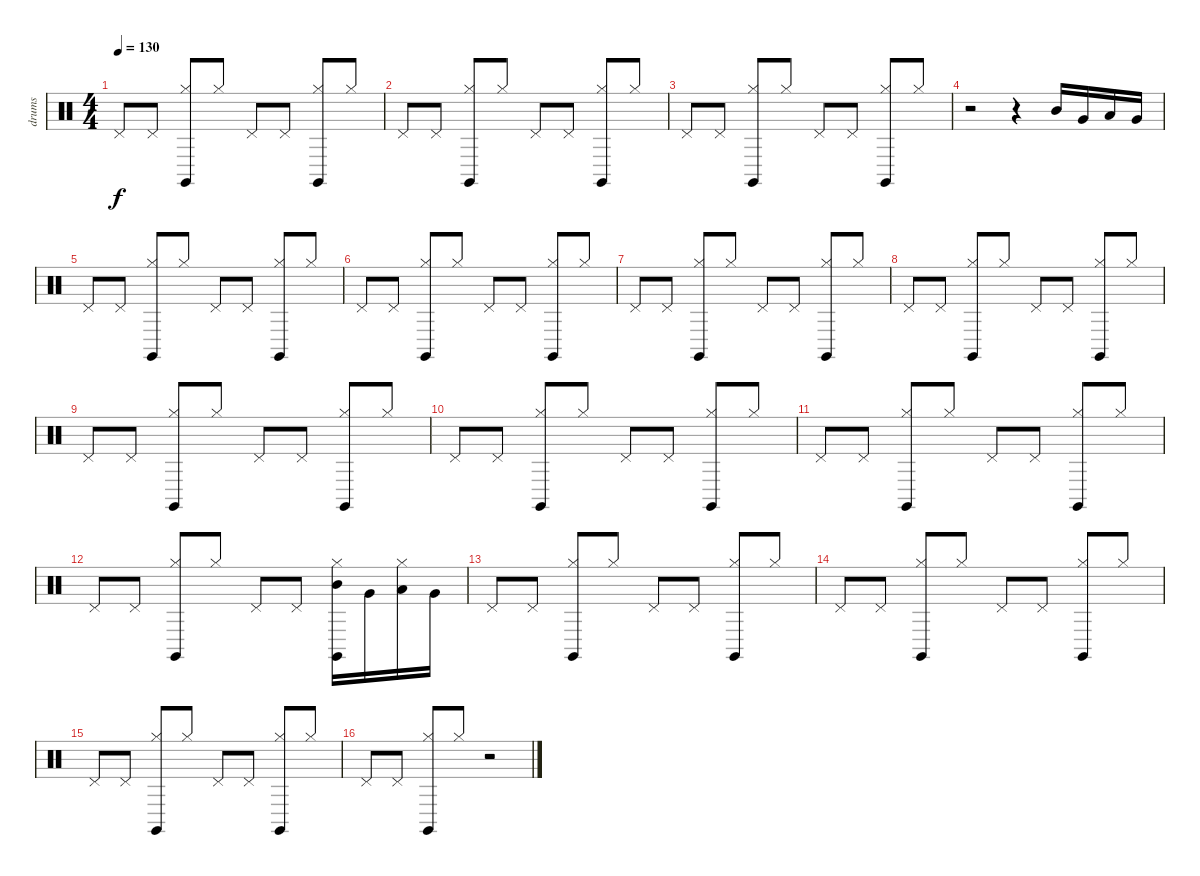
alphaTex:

\track ("drums" "drums") {instrument percussion}
\staff {score}
\articulation defaults
\ts (4 4)
\tempo 130
\clef neutral
\ks c "Pedal Hi-Hat (hit)".8{dy f} "Pedal Hi-Hat (hit)".8
("Hi-Hat (closed)" "Claves (hit)").8 "Hi-Hat (closed)".8 "Pedal Hi-Hat (hit)".8 "Pedal Hi-Hat (hit)".8 ("Hi-Hat (closed)" "Claves (hit)").8 "Hi-Hat (closed)".8 |
"Pedal Hi-Hat (hit)".8 "Pedal Hi-Hat (hit)".8 ("Hi-Hat (closed)" "Claves (hit)").8 "Hi-Hat (closed)".8 "Pedal Hi-Hat (hit)".8 "Pedal Hi-Hat (hit)".8 ("Hi-Hat (closed)" "Claves (hit)").8 "Hi-Hat (closed)".8 |
"Pedal Hi-Hat (hit)".8 "Pedal Hi-Hat (hit)".8 ("Hi-Hat (closed)" "Claves (hit)").8 "Hi-Hat (closed)".8 "Pedal Hi-Hat (hit)".8 "Pedal Hi-Hat (hit)".8 ("Hi-Hat (closed)" "Claves (hit)").8 "Hi-Hat (closed)".8 |
r.2 r.4 "Mid Tom (hit)".16 "Very Low Tom (hit)".16 "Low Floor Tom (hit)".16 "Very Low Tom (hit)".16 |
"Pedal Hi-Hat (hit)".8 "Pedal Hi-Hat (hit)".8 ("Hi-Hat (closed)" "Claves (hit)").8 "Hi-Hat (closed)".8 "Pedal Hi-Hat (hit)".8 "Pedal Hi-Hat (hit)".8 ("Hi-Hat (closed)" "Claves (hit)").8 "Hi-Hat (closed)".8 |
"Pedal Hi-Hat (hit)".8 "Pedal Hi-Hat (hit)".8 ("Hi-Hat (closed)" "Claves (hit)").8 "Hi-Hat (closed)".8 "Pedal Hi-Hat (hit)".8 "Pedal Hi-Hat (hit)".8 ("Hi-Hat (closed)" "Claves (hit)").8 "Hi-Hat (closed)".8 |
"Pedal Hi-Hat (hit)".8 "Pedal Hi-Hat (hit)".8 ("Hi-Hat (closed)" "Claves (hit)").8 "Hi-Hat (closed)".8 "Pedal Hi-Hat (hit)".8 "Pedal Hi-Hat (hit)".8 ("Hi-Hat (closed)" "Claves (hit)").8 "Hi-Hat (closed)".8 |
"Pedal Hi-Hat (hit)".8 "Pedal Hi-Hat (hit)".8 ("Hi-Hat (closed)" "Claves (hit)").8 "Hi-Hat (closed)".8 "Pedal Hi-Hat (hit)".8 "Pedal Hi-Hat (hit)".8 ("Hi-Hat (closed)" "Claves (hit)").8 "Hi-Hat (closed)".8 |
"Pedal Hi-Hat (hit)".8 "Pedal Hi-Hat (hit)".8 ("Hi-Hat (closed)" "Claves (hit)").8 "Hi-Hat (closed)".8 "Pedal Hi-Hat (hit)".8 "Pedal Hi-Hat (hit)".8 ("Hi-Hat (closed)" "Claves (hit)").8 "Hi-Hat (closed)".8 |
"Pedal Hi-Hat (hit)".8 "Pedal Hi-Hat (hit)".8 ("Hi-Hat (closed)" "Claves (hit)").8 "Hi-Hat (closed)".8 "Pedal Hi-Hat (hit)".8 "Pedal Hi-Hat (hit)".8 ("Hi-Hat (closed)" "Claves (hit)").8 "Hi-Hat (closed)".8 |
"Pedal Hi-Hat (hit)".8 "Pedal Hi-Hat (hit)".8 ("Hi-Hat (closed)" "Claves (hit)").8 "Hi-Hat (closed)".8 "Pedal Hi-Hat (hit)".8 "Pedal Hi-Hat (hit)".8 ("Hi-Hat (closed)" "Claves (hit)").8 "Hi-Hat (closed)".8 |
"Pedal Hi-Hat (hit)".8 "Pedal Hi-Hat (hit)".8 ("Hi-Hat (closed)" "Claves (hit)").8 "Hi-Hat (closed)".8 "Pedal Hi-Hat (hit)".8 "Pedal Hi-Hat (hit)".8 ("Hi-Hat (closed)" "Claves (hit)" "Mid Tom (hit)").16 "Very Low Tom (hit)".16 ("Hi-Hat (closed)" "Low Floor Tom (hit)").16 "Very Low Tom (hit)".16 |
"Pedal Hi-Hat (hit)".8 "Pedal Hi-Hat (hit)".8 ("Hi-Hat (closed)" "Claves (hit)").8 "Hi-Hat (closed)".8 "Pedal Hi-Hat (hit)".8 "Pedal Hi-Hat (hit)".8 ("Hi-Hat (closed)" "Claves (hit)").8 "Hi-Hat (closed)".8 |
"Pedal Hi-Hat (hit)".8 "Pedal Hi-Hat (hit)".8 ("Hi-Hat (closed)" "Claves (hit)").8 "Hi-Hat (closed)".8 "Pedal Hi-Hat (hit)".8 "Pedal Hi-Hat (hit)".8 ("Hi-Hat (closed)" "Claves (hit)").8 "Hi-Hat (closed)".8 |
"Pedal Hi-Hat (hit)".8 "Pedal Hi-Hat (hit)".8 ("Hi-Hat (closed)" "Claves (hit)").8 "Hi-Hat (closed)".8 "Pedal Hi-Hat (hit)".8 "Pedal Hi-Hat (hit)".8 ("Hi-Hat (closed)" "Claves (hit)").8 "Hi-Hat (closed)".8 |
"Pedal Hi-Hat (hit)".8 "Pedal Hi-Hat (hit)".8 ("Hi-Hat (closed)" "Claves (hit)").8 "Hi-Hat (closed)".8 r.2
